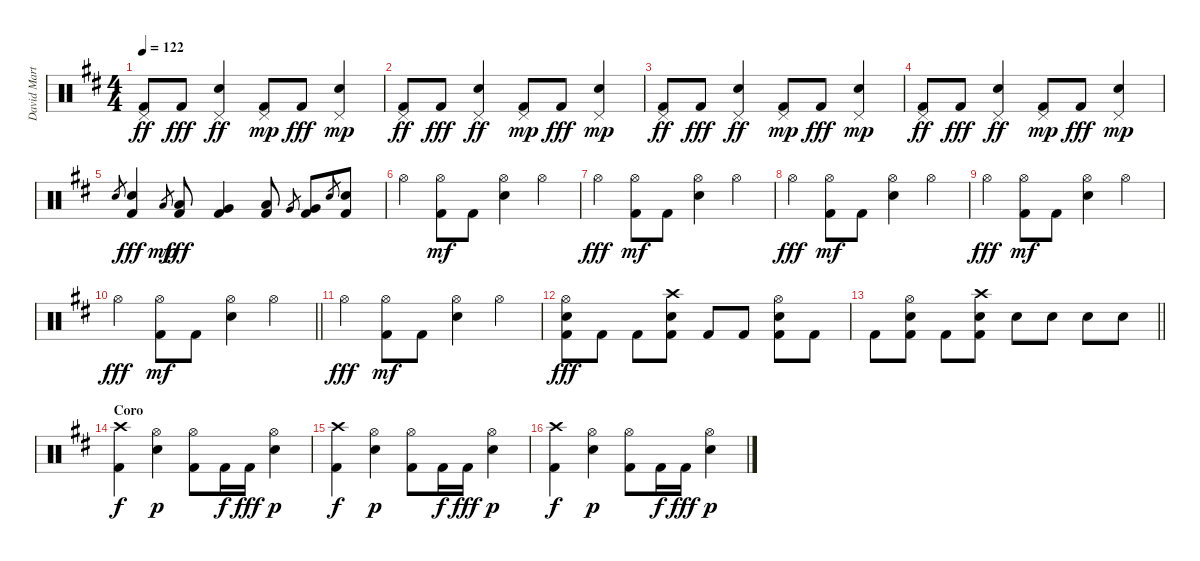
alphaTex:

\track ("David Martinez" "David Mart") {instrument percussion}
\staff {score}
\articulation defaults
\ts (4 4)
\tempo 122
\clef neutral
\ks d
("Kick (hit) 2" "Pedal Hi-Hat (hit)").8{dy ff} "Kick (hit) 2".8{dy fff} ("Snare (hit) 2" "Pedal Hi-Hat (hit)").4{dy ff} ("Pedal Hi-Hat (hit)" "Kick (hit) 2").8{dy mp} "Kick (hit) 2".8{dy fff} ("Snare (hit) 2" "Pedal Hi-Hat (hit)").4{dy mp} |
("Kick (hit) 2" "Pedal Hi-Hat (hit)").8{dy ff} "Kick (hit) 2".8{dy fff} ("Snare (hit) 2" "Pedal Hi-Hat (hit)").4{dy ff} ("Pedal Hi-Hat (hit)" "Kick (hit) 2").8{dy mp} "Kick (hit) 2".8{dy fff} ("Snare (hit) 2" "Pedal Hi-Hat (hit)").4{dy mp} |
("Kick (hit) 2" "Pedal Hi-Hat (hit)").8{dy ff} "Kick (hit) 2".8{dy fff} ("Snare (hit) 2" "Pedal Hi-Hat (hit)").4{dy ff} ("Pedal Hi-Hat (hit)" "Kick (hit) 2").8{dy mp} "Kick (hit) 2".8{dy fff} ("Snare (hit) 2" "Pedal Hi-Hat (hit)").4{dy mp} |
("Kick (hit) 2" "Pedal Hi-Hat (hit)").8{dy ff} "Kick (hit) 2".8{dy fff} ("Snare (hit) 2" "Pedal Hi-Hat (hit)").4{dy ff} ("Pedal Hi-Hat (hit)" "Kick (hit) 2").8{dy mp} "Kick (hit) 2".8{dy fff} ("Snare (hit) 2" "Pedal Hi-Hat (hit)").4{dy mp} |
"Snare (hit) 2".8{gr} ("Snare (hit) 2" "Kick (hit) 2").4{dy fff} "Low Floor Tom (hit)".8{gr dy mp} ("Low Floor Tom (hit)" "Kick (hit) 2").8{dy fff} ("Kick (hit) 2" "Very Low Tom (hit)").4 ("Low Tom (hit)" "Kick (hit) 2").8 "Very Low Tom (hit)".8{gr} ("Kick (hit) 2" "Very Low Tom (hit)").8 "Snare (hit) 2".8{gr} ("Snare (hit) 2" "Kick (hit) 2").8 |
"Hi-Hat (open)".4{volume 14} ("Hi-Hat (open)" "Kick (hit) 2").8{dy mf} "Kick (hit) 2".8 ("Hi-Hat (open)" "Snare (hit) 2").4 "Hi-Hat (open)".4 |
"Hi-Hat (open)".4{dy fff} ("Hi-Hat (open)" "Kick (hit) 2").8{dy mf} "Kick (hit) 2".8 ("Hi-Hat (open)" "Snare (hit) 2").4 "Hi-Hat (open)".4 |
"Hi-Hat (open)".4{dy fff} ("Hi-Hat (open)" "Kick (hit) 2").8{dy mf} "Kick (hit) 2".8 ("Hi-Hat (open)" "Snare (hit) 2").4 "Hi-Hat (open)".4 |
"Hi-Hat (open)".4{dy fff} ("Hi-Hat (open)" "Kick (hit) 2").8{dy mf} "Kick (hit) 2".8 ("Hi-Hat (open)" "Snare (hit) 2").4 "Hi-Hat (open)".4 |
\barLineRight lightlight "Hi-Hat (open)".4{dy fff}
("Hi-Hat (open)" "Kick (hit) 2").8{dy mf} "Kick (hit) 2".8 ("Hi-Hat (open)" "Snare (hit) 2").4 "Hi-Hat (open)".4 |
"Hi-Hat (open)".4{dy fff} ("Hi-Hat (open)" "Kick (hit) 2").8{dy mf} "Kick (hit) 2".8 ("Hi-Hat (open)" "Snare (hit) 2").4 "Hi-Hat (open)".4 |
("Hi-Hat (open)" "Snare (hit) 2" "Kick (hit) 2").8{dy fff} "Kick (hit) 2".8 "Kick (hit) 2".8 ("Crash high (hit)" "Snare (hit) 2" "Kick (hit) 2").8 "Kick (hit) 2".8 "Kick (hit) 2".8 ("Hi-Hat (open)" "Snare (hit) 2" "Kick (hit) 2").8 "Kick (hit) 2".8 |
\barLineRight lightlight "Kick (hit) 2".8
("Hi-Hat (open)" "Snare (hit) 2" "Kick (hit) 2").8 "Kick (hit) 2".8 ("Crash high (hit)" "Snare (hit) 2" "Kick (hit) 2").8 "Snare (hit) 2".8 "Snare (hit) 2".8 "Snare (hit) 2".8 "Snare (hit) 2".8 |
\section ("" "Coro")
("Crash high (hit)" "Kick (hit) 2").4{dy f} ("Hi-Hat (open)" "Snare (hit) 2").4{dy p} ("Hi-Hat (open)" "Kick (hit) 2").8 "Kick (hit) 2".16{dy f} "Kick (hit) 2".16{dy fff} ("Hi-Hat (open)" "Snare (hit) 2").4{dy p} |
("Crash high (hit)" "Kick (hit) 2").4{dy f} ("Hi-Hat (open)" "Snare (hit) 2").4{dy p} ("Hi-Hat (open)" "Kick (hit) 2").8 "Kick (hit) 2".16{dy f} "Kick (hit) 2".16{dy fff} ("Hi-Hat (open)" "Snare (hit) 2").4{dy p} |
("Crash high (hit)" "Kick (hit) 2").4{dy f} ("Hi-Hat (open)" "Snare (hit) 2").4{dy p} ("Hi-Hat (open)" "Kick (hit) 2").8 "Kick (hit) 2".16{dy f} "Kick (hit) 2".16{dy fff} ("Hi-Hat (open)" "Snare (hit) 2").4{dy p}
